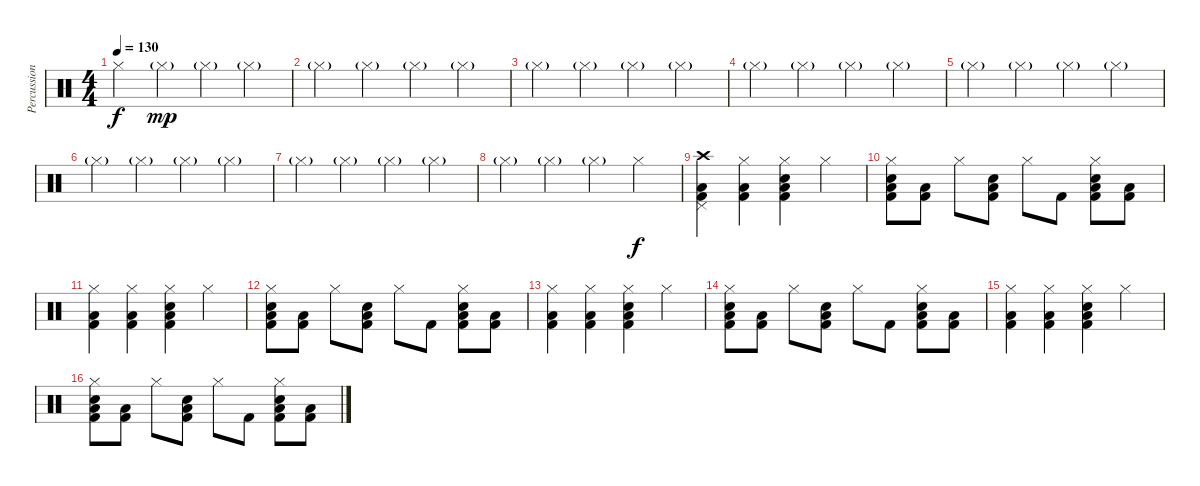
\track ("Percussion" "Percussion") {instrument percussion}
\staff {score}
\articulation defaults
\ts (4 4)
\tempo 130
\clef neutral
\ks c "Hi-Hat (closed)".4{dy f} "Hi-Hat (closed)"{g}.4{dy mp} "Hi-Hat (closed)"{g}.4 "Hi-Hat (closed)"{g}.4
|
"Hi-Hat (closed)"{g}.4 "Hi-Hat (closed)"{g}.4 "Hi-Hat (closed)"{g}.4 "Hi-Hat (closed)"{g}.4 |
"Hi-Hat (closed)"{g}.4 "Hi-Hat (closed)"{g}.4 "Hi-Hat (closed)"{g}.4 "Hi-Hat (closed)"{g}.4 |
"Hi-Hat (closed)"{g}.4 "Hi-Hat (closed)"{g}.4 "Hi-Hat (closed)"{g}.4 "Hi-Hat (closed)"{g}.4 |
"Hi-Hat (closed)"{g}.4 "Hi-Hat (closed)"{g}.4 "Hi-Hat (closed)"{g}.4 "Hi-Hat (closed)"{g}.4 |
"Hi-Hat (closed)"{g}.4 "Hi-Hat (closed)"{g}.4 "Hi-Hat (closed)"{g}.4 "Hi-Hat (closed)"{g}.4 |
"Hi-Hat (closed)"{g}.4 "Hi-Hat (closed)"{g}.4 "Hi-Hat (closed)"{g}.4 "Hi-Hat (closed)"{g}.4 |
"Hi-Hat (closed)"{g}.4 "Hi-Hat (closed)"{g}.4 "Hi-Hat (closed)"{g}.4 "Hi-Hat (closed)".4{dy f} |
("Crash high (hit)" "Pedal Hi-Hat (hit)" "Low Tom (hit)" "Kick (hit) 2").4 ("Hi-Hat (closed)" "Low Tom (hit)" "Kick (hit) 2").4 ("Hi-Hat (closed)" "Electric Snare (hit)" "Low Tom (hit)" "Kick (hit) 2").4 "Hi-Hat (closed)".4 |
("Hi-Hat (closed)" "Electric Snare (hit)" "Low Tom (hit)" "Kick (hit) 2").8 ("Low Tom (hit)" "Kick (hit) 2").8 "Hi-Hat (closed)".8 ("Electric Snare (hit)" "Low Tom (hit)" "Kick (hit) 2").8 "Hi-Hat (closed)".8 "Kick (hit) 2".8 ("Hi-Hat (closed)" "Electric Snare (hit)" "Low Tom (hit)" "Kick (hit) 2").8 ("Low Tom (hit)" "Kick (hit) 2").8 |
("Hi-Hat (closed)" "Low Tom (hit)" "Kick (hit) 2").4 ("Hi-Hat (closed)" "Low Tom (hit)" "Kick (hit) 2").4 ("Hi-Hat (closed)" "Electric Snare (hit)" "Low Tom (hit)" "Kick (hit) 2").4 "Hi-Hat (closed)".4 |
("Hi-Hat (closed)" "Electric Snare (hit)" "Low Tom (hit)" "Kick (hit) 2").8 ("Low Tom (hit)" "Kick (hit) 2").8 "Hi-Hat (closed)".8 ("Electric Snare (hit)" "Low Tom (hit)" "Kick (hit) 2").8 "Hi-Hat (closed)".8 "Kick (hit) 2".8 ("Hi-Hat (closed)" "Electric Snare (hit)" "Low Tom (hit)" "Kick (hit) 2").8 ("Low Tom (hit)" "Kick (hit) 2").8 |
("Hi-Hat (closed)" "Low Tom (hit)" "Kick (hit) 2").4 ("Hi-Hat (closed)" "Low Tom (hit)" "Kick (hit) 2").4 ("Hi-Hat (closed)" "Electric Snare (hit)" "Low Tom (hit)" "Kick (hit) 2").4 "Hi-Hat (closed)".4 |
("Hi-Hat (closed)" "Electric Snare (hit)" "Low Tom (hit)" "Kick (hit) 2").8 ("Low Tom (hit)" "Kick (hit) 2").8 "Hi-Hat (closed)".8 ("Electric Snare (hit)" "Low Tom (hit)" "Kick (hit) 2").8 "Hi-Hat (closed)".8 "Kick (hit) 2".8 ("Hi-Hat (closed)" "Electric Snare (hit)" "Low Tom (hit)" "Kick (hit) 2").8 ("Low Tom (hit)" "Kick (hit) 2").8 |
("Hi-Hat (closed)" "Low Tom (hit)" "Kick (hit) 2").4 ("Hi-Hat (closed)" "Low Tom (hit)" "Kick (hit) 2").4 ("Hi-Hat (closed)" "Electric Snare (hit)" "Low Tom (hit)" "Kick (hit) 2").4 "Hi-Hat (closed)".4 |
("Hi-Hat (closed)" "Electric Snare (hit)" "Low Tom (hit)" "Kick (hit) 2").8 ("Low Tom (hit)" "Kick (hit) 2").8 "Hi-Hat (closed)".8 ("Electric Snare (hit)" "Low Tom (hit)" "Kick (hit) 2").8 "Hi-Hat (closed)".8 "Kick (hit) 2".8 ("Hi-Hat (closed)" "Electric Snare (hit)" "Low Tom (hit)" "Kick (hit) 2").8 ("Low Tom (hit)" "Kick (hit) 2").8
